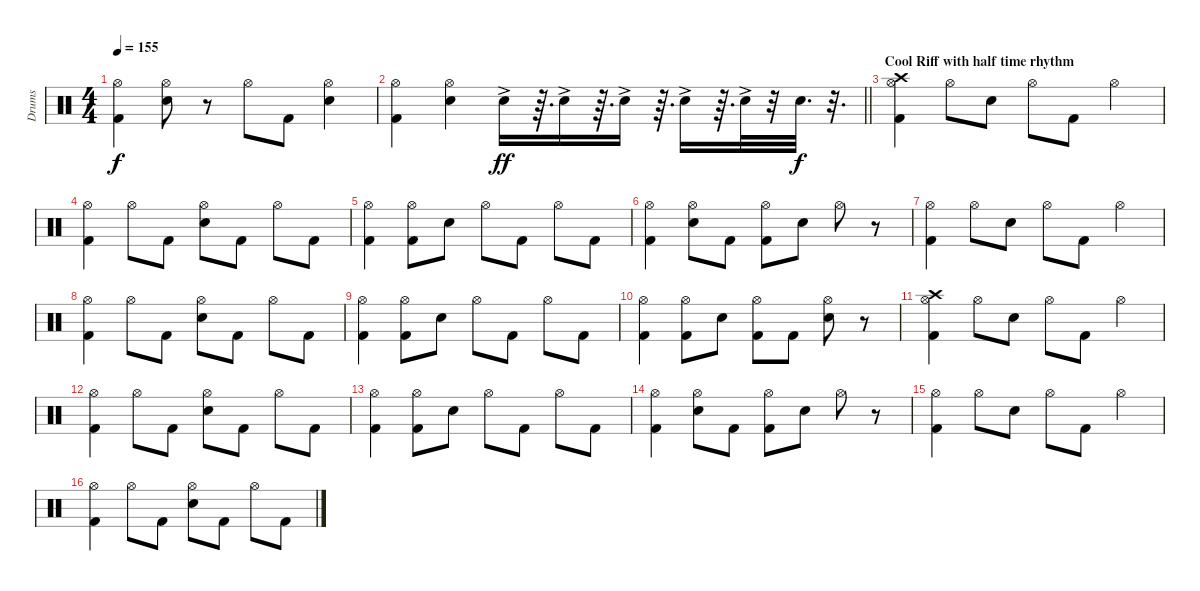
\track ("Drums" "Drums") {instrument percussion}
\staff {score}
\articulation defaults
\ts (4 4)
\tempo 155
\clef neutral
\ks c
("Hi-Hat (open)" "Kick (hit) 2").4{dy f} ("Hi-Hat (open)" "Electric Snare (hit)").8 r.8 "Hi-Hat (open)".8 "Kick (hit) 2".8 ("Hi-Hat (open)" "Electric Snare (hit)").4 |
\barLineRight lightlight
("Hi-Hat (open)" "Kick (hit) 2").4 ("Hi-Hat (open)" "Electric Snare (hit)").4 "Electric Snare (hit)"{ac}.16{dy ff} r.64{d} "Electric Snare (hit)"{ac}.16 r.64{d} "Electric Snare (hit)"{ac}.16 r.64{d} "Electric Snare (hit)"{ac}.16 r.64{d} "Electric Snare (hit)"{ac}.32 r.32 "Electric Snare (hit)".32{d dy f} r.32{d} |
\section ("" "Cool Riff with half time rhythm")
("Hi-Hat (open)" "Crash high (hit)" "Kick (hit) 2").4 "Hi-Hat (open)".8 "Electric Snare (hit)".8 "Hi-Hat (open)".8 "Kick (hit) 2".8 "Hi-Hat (open)".4 |
("Hi-Hat (open)" "Kick (hit) 2").4 "Hi-Hat (open)".8 "Kick (hit) 2".8 ("Hi-Hat (open)" "Electric Snare (hit)").8 "Kick (hit) 2".8 "Hi-Hat (open)".8 "Kick (hit) 2".8 |
("Hi-Hat (open)" "Kick (hit) 2").4 ("Hi-Hat (open)" "Kick (hit) 2").8 "Electric Snare (hit)".8 "Hi-Hat (open)".8 "Kick (hit) 2".8 "Hi-Hat (open)".8 "Kick (hit) 2".8 |
("Hi-Hat (open)" "Kick (hit) 2").4 ("Hi-Hat (open)" "Electric Snare (hit)").8 "Kick (hit) 2".8 ("Hi-Hat (open)" "Kick (hit) 2").8 "Electric Snare (hit)".8 "Hi-Hat (open)".8 r.8 |
("Hi-Hat (open)" "Kick (hit) 2").4 "Hi-Hat (open)".8 "Electric Snare (hit)".8 "Hi-Hat (open)".8 "Kick (hit) 2".8 "Hi-Hat (open)".4 |
("Hi-Hat (open)" "Kick (hit) 2").4 "Hi-Hat (open)".8 "Kick (hit) 2".8 ("Hi-Hat (open)" "Electric Snare (hit)").8 "Kick (hit) 2".8 "Hi-Hat (open)".8 "Kick (hit) 2".8 |
("Hi-Hat (open)" "Kick (hit) 2").4 ("Hi-Hat (open)" "Kick (hit) 2").8 "Electric Snare (hit)".8 "Hi-Hat (open)".8 "Kick (hit) 2".8 "Hi-Hat (open)".8 "Kick (hit) 2".8 |
("Hi-Hat (open)" "Kick (hit) 2").4 ("Hi-Hat (open)" "Kick (hit) 2").8 "Electric Snare (hit)".8 ("Hi-Hat (open)" "Kick (hit) 2").8 "Kick (hit) 2".8 ("Hi-Hat (open)" "Electric Snare (hit)").8 r.8 |
("Hi-Hat (open)" "Crash high (hit)" "Kick (hit) 2").4 "Hi-Hat (open)".8 "Electric Snare (hit)".8 "Hi-Hat (open)".8 "Kick (hit) 2".8 "Hi-Hat (open)".4 |
("Hi-Hat (open)" "Kick (hit) 2").4 "Hi-Hat (open)".8 "Kick (hit) 2".8 ("Hi-Hat (open)" "Electric Snare (hit)").8 "Kick (hit) 2".8 "Hi-Hat (open)".8 "Kick (hit) 2".8 |
("Hi-Hat (open)" "Kick (hit) 2").4 ("Hi-Hat (open)" "Kick (hit) 2").8 "Electric Snare (hit)".8 "Hi-Hat (open)".8 "Kick (hit) 2".8 "Hi-Hat (open)".8 "Kick (hit) 2".8 |
("Hi-Hat (open)" "Kick (hit) 2").4 ("Hi-Hat (open)" "Electric Snare (hit)").8 "Kick (hit) 2".8 ("Hi-Hat (open)" "Kick (hit) 2").8 "Electric Snare (hit)".8 "Hi-Hat (open)".8 r.8 |
("Hi-Hat (open)" "Kick (hit) 2").4 "Hi-Hat (open)".8 "Electric Snare (hit)".8 "Hi-Hat (open)".8 "Kick (hit) 2".8 "Hi-Hat (open)".4 |
("Hi-Hat (open)" "Kick (hit) 2").4 "Hi-Hat (open)".8 "Kick (hit) 2".8 ("Hi-Hat (open)" "Electric Snare (hit)").8 "Kick (hit) 2".8 "Hi-Hat (open)".8 "Kick (hit) 2".8
